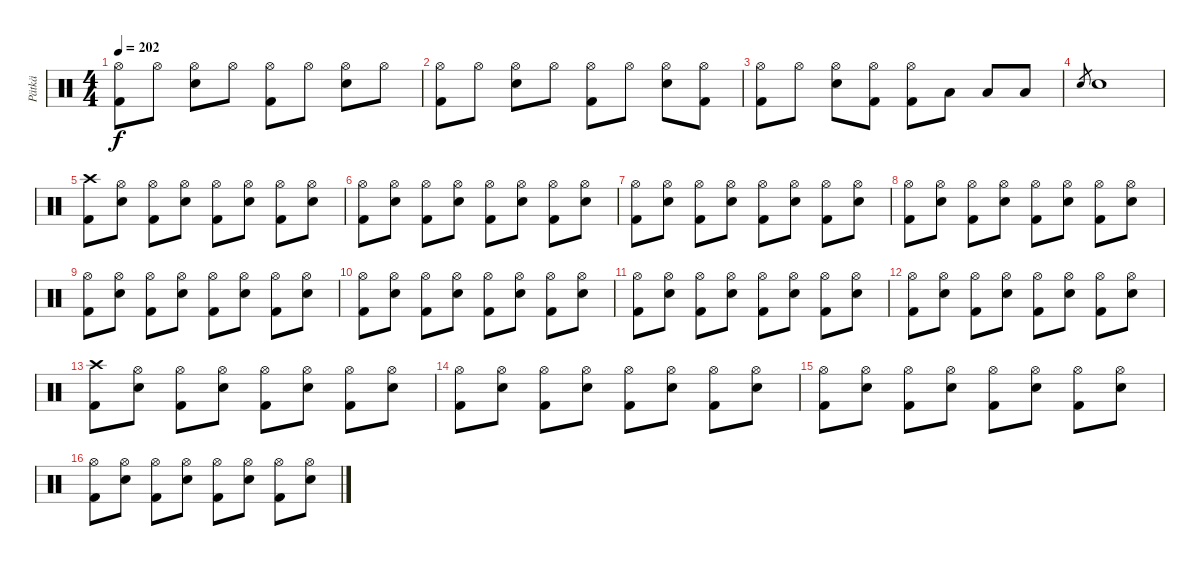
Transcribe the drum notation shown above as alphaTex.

\track ("Pätkä" "Pätkä") {instrument percussion}
\staff {score}
\articulation defaults
\ts (4 4)
\tempo 202
\clef neutral
\ks c
("Hi-Hat (open)" "Kick (hit) 2").8{dy f} "Hi-Hat (open)".8 ("Hi-Hat (open)" "Electric Snare (hit)").8 "Hi-Hat (open)".8 ("Hi-Hat (open)" "Kick (hit) 2").8 "Hi-Hat (open)".8 ("Hi-Hat (open)" "Electric Snare (hit)").8 "Hi-Hat (open)".8 |
("Hi-Hat (open)" "Kick (hit) 2").8 "Hi-Hat (open)".8 ("Hi-Hat (open)" "Electric Snare (hit)").8 "Hi-Hat (open)".8 ("Hi-Hat (open)" "Kick (hit) 2").8 "Hi-Hat (open)".8 ("Hi-Hat (open)" "Electric Snare (hit)").8 ("Hi-Hat (open)" "Kick (hit) 2").8 |
("Hi-Hat (open)" "Kick (hit) 2").8 "Hi-Hat (open)".8 ("Hi-Hat (open)" "Electric Snare (hit)").8 ("Hi-Hat (open)" "Kick (hit) 2").8 ("Hi-Hat (open)" "Kick (hit) 2").8 "Low Tom (hit)".8 "Low Tom (hit)".8 "Low Floor Tom (hit)".8 |
"Electric Snare (hit)".8{gr} "Electric Snare (hit)".1 |
("Crash high (hit)" "Kick (hit) 2").8 ("Hi-Hat (open)" "Electric Snare (hit)").8 ("Hi-Hat (open)" "Kick (hit) 2").8 ("Hi-Hat (open)" "Electric Snare (hit)").8 ("Hi-Hat (open)" "Kick (hit) 2").8 ("Hi-Hat (open)" "Electric Snare (hit)").8 ("Hi-Hat (open)" "Kick (hit) 2").8 ("Hi-Hat (open)" "Electric Snare (hit)").8 |
("Hi-Hat (open)" "Kick (hit) 2").8 ("Hi-Hat (open)" "Electric Snare (hit)").8 ("Hi-Hat (open)" "Kick (hit) 2").8 ("Hi-Hat (open)" "Electric Snare (hit)").8 ("Hi-Hat (open)" "Kick (hit) 2").8 ("Hi-Hat (open)" "Electric Snare (hit)").8 ("Hi-Hat (open)" "Kick (hit) 2").8 ("Hi-Hat (open)" "Electric Snare (hit)").8 |
("Hi-Hat (open)" "Kick (hit) 2").8 ("Hi-Hat (open)" "Electric Snare (hit)").8 ("Hi-Hat (open)" "Kick (hit) 2").8 ("Hi-Hat (open)" "Electric Snare (hit)").8 ("Hi-Hat (open)" "Kick (hit) 2").8 ("Hi-Hat (open)" "Electric Snare (hit)").8 ("Hi-Hat (open)" "Kick (hit) 2").8 ("Hi-Hat (open)" "Electric Snare (hit)").8 |
("Hi-Hat (open)" "Kick (hit) 2").8 ("Hi-Hat (open)" "Electric Snare (hit)").8 ("Hi-Hat (open)" "Kick (hit) 2").8 ("Hi-Hat (open)" "Electric Snare (hit)").8 ("Hi-Hat (open)" "Kick (hit) 2").8 ("Hi-Hat (open)" "Electric Snare (hit)").8 ("Hi-Hat (open)" "Kick (hit) 2").8 ("Hi-Hat (open)" "Electric Snare (hit)").8 |
("Hi-Hat (open)" "Kick (hit) 2").8 ("Hi-Hat (open)" "Electric Snare (hit)").8 ("Hi-Hat (open)" "Kick (hit) 2").8 ("Hi-Hat (open)" "Electric Snare (hit)").8 ("Hi-Hat (open)" "Kick (hit) 2").8 ("Hi-Hat (open)" "Electric Snare (hit)").8 ("Hi-Hat (open)" "Kick (hit) 2").8 ("Hi-Hat (open)" "Electric Snare (hit)").8 |
("Hi-Hat (open)" "Kick (hit) 2").8 ("Hi-Hat (open)" "Electric Snare (hit)").8 ("Hi-Hat (open)" "Kick (hit) 2").8 ("Hi-Hat (open)" "Electric Snare (hit)").8 ("Hi-Hat (open)" "Kick (hit) 2").8 ("Hi-Hat (open)" "Electric Snare (hit)").8 ("Hi-Hat (open)" "Kick (hit) 2").8 ("Hi-Hat (open)" "Electric Snare (hit)").8 |
("Hi-Hat (open)" "Kick (hit) 2").8 ("Hi-Hat (open)" "Electric Snare (hit)").8 ("Hi-Hat (open)" "Kick (hit) 2").8 ("Hi-Hat (open)" "Electric Snare (hit)").8 ("Hi-Hat (open)" "Kick (hit) 2").8 ("Hi-Hat (open)" "Electric Snare (hit)").8 ("Hi-Hat (open)" "Kick (hit) 2").8 ("Hi-Hat (open)" "Electric Snare (hit)").8 |
("Hi-Hat (open)" "Kick (hit) 2").8 ("Hi-Hat (open)" "Electric Snare (hit)").8 ("Hi-Hat (open)" "Kick (hit) 2").8 ("Hi-Hat (open)" "Electric Snare (hit)").8 ("Hi-Hat (open)" "Kick (hit) 2").8 ("Hi-Hat (open)" "Electric Snare (hit)").8 ("Hi-Hat (open)" "Kick (hit) 2").8 ("Hi-Hat (open)" "Electric Snare (hit)").8 |
("Crash high (hit)" "Kick (hit) 2").8 ("Hi-Hat (open)" "Electric Snare (hit)").8 ("Hi-Hat (open)" "Kick (hit) 2").8 ("Hi-Hat (open)" "Electric Snare (hit)").8 ("Hi-Hat (open)" "Kick (hit) 2").8 ("Hi-Hat (open)" "Electric Snare (hit)").8 ("Hi-Hat (open)" "Kick (hit) 2").8 ("Hi-Hat (open)" "Electric Snare (hit)").8 |
("Hi-Hat (open)" "Kick (hit) 2").8 ("Hi-Hat (open)" "Electric Snare (hit)").8 ("Hi-Hat (open)" "Kick (hit) 2").8 ("Hi-Hat (open)" "Electric Snare (hit)").8 ("Hi-Hat (open)" "Kick (hit) 2").8 ("Hi-Hat (open)" "Electric Snare (hit)").8 ("Hi-Hat (open)" "Kick (hit) 2").8 ("Hi-Hat (open)" "Electric Snare (hit)").8 |
("Hi-Hat (open)" "Kick (hit) 2").8 ("Hi-Hat (open)" "Electric Snare (hit)").8 ("Hi-Hat (open)" "Kick (hit) 2").8 ("Hi-Hat (open)" "Electric Snare (hit)").8 ("Hi-Hat (open)" "Kick (hit) 2").8 ("Hi-Hat (open)" "Electric Snare (hit)").8 ("Hi-Hat (open)" "Kick (hit) 2").8 ("Hi-Hat (open)" "Electric Snare (hit)").8 |
("Hi-Hat (open)" "Kick (hit) 2").8 ("Hi-Hat (open)" "Electric Snare (hit)").8 ("Hi-Hat (open)" "Kick (hit) 2").8 ("Hi-Hat (open)" "Electric Snare (hit)").8 ("Hi-Hat (open)" "Kick (hit) 2").8 ("Hi-Hat (open)" "Electric Snare (hit)").8 ("Hi-Hat (open)" "Kick (hit) 2").8 ("Hi-Hat (open)" "Electric Snare (hit)").8
